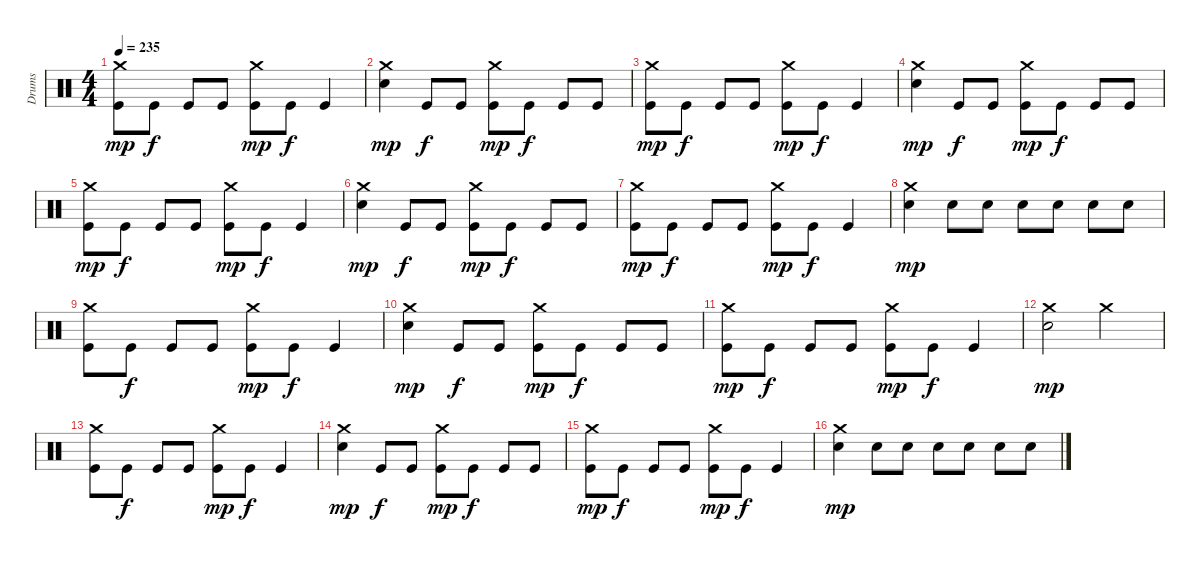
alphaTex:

\track ("Drums" "Drums") {instrument percussion}
\staff {score}
\articulation defaults
\ts (4 4)
\tempo 235
\clef neutral
\ks c
("Crash medium (hit)" "Kick (hit)").8{dy mp} "Kick (hit)".8{dy f} "Kick (hit)".8 "Kick (hit)".8 ("Crash medium (hit)" "Kick (hit)").8{dy mp} "Kick (hit)".8{dy f} "Kick (hit)".4 |
("Crash medium (hit)" "Snare (hit) 2").4{dy mp} "Kick (hit)".8{dy f} "Kick (hit)".8 ("Crash medium (hit)" "Kick (hit)").8{dy mp} "Kick (hit)".8{dy f} "Kick (hit)".8 "Kick (hit)".8 |
("Crash medium (hit)" "Kick (hit)").8{dy mp} "Kick (hit)".8{dy f} "Kick (hit)".8 "Kick (hit)".8 ("Crash medium (hit)" "Kick (hit)").8{dy mp} "Kick (hit)".8{dy f} "Kick (hit)".4 |
("Crash medium (hit)" "Snare (hit) 2").4{dy mp} "Kick (hit)".8{dy f} "Kick (hit)".8 ("Crash medium (hit)" "Kick (hit)").8{dy mp} "Kick (hit)".8{dy f} "Kick (hit)".8 "Kick (hit)".8 |
("Crash medium (hit)" "Kick (hit)").8{dy mp} "Kick (hit)".8{dy f} "Kick (hit)".8 "Kick (hit)".8 ("Crash medium (hit)" "Kick (hit)").8{dy mp} "Kick (hit)".8{dy f} "Kick (hit)".4 |
("Crash medium (hit)" "Snare (hit) 2").4{dy mp} "Kick (hit)".8{dy f} "Kick (hit)".8 ("Crash medium (hit)" "Kick (hit)").8{dy mp} "Kick (hit)".8{dy f} "Kick (hit)".8 "Kick (hit)".8 |
("Crash medium (hit)" "Kick (hit)").8{dy mp} "Kick (hit)".8{dy f} "Kick (hit)".8 "Kick (hit)".8 ("Crash medium (hit)" "Kick (hit)").8{dy mp} "Kick (hit)".8{dy f} "Kick (hit)".4 |
("Crash medium (hit)" "Snare (hit) 2").4{dy mp} "Snare (hit) 2".8 "Snare (hit) 2".8 "Snare (hit) 2".8 "Snare (hit) 2".8 "Snare (hit) 2".8 "Snare (hit) 2".8 |
("Crash medium (hit)" "Kick (hit)").8 "Kick (hit)".8{dy f} "Kick (hit)".8 "Kick (hit)".8 ("Crash medium (hit)" "Kick (hit)").8{dy mp} "Kick (hit)".8{dy f} "Kick (hit)".4 |
("Crash medium (hit)" "Snare (hit) 2").4{dy mp} "Kick (hit)".8{dy f} "Kick (hit)".8 ("Crash medium (hit)" "Kick (hit)").8{dy mp} "Kick (hit)".8{dy f} "Kick (hit)".8 "Kick (hit)".8 |
("Crash medium (hit)" "Kick (hit)").8{dy mp} "Kick (hit)".8{dy f} "Kick (hit)".8 "Kick (hit)".8 ("Crash medium (hit)" "Kick (hit)").8{dy mp} "Kick (hit)".8{dy f} "Kick (hit)".4 |
("Crash medium (hit)" "Snare (hit) 2").2{dy mp} "Crash medium (hit)".2 |
("Crash medium (hit)" "Kick (hit)").8 "Kick (hit)".8{dy f} "Kick (hit)".8 "Kick (hit)".8 ("Crash medium (hit)" "Kick (hit)").8{dy mp} "Kick (hit)".8{dy f} "Kick (hit)".4 |
("Crash medium (hit)" "Snare (hit) 2").4{dy mp} "Kick (hit)".8{dy f} "Kick (hit)".8 ("Crash medium (hit)" "Kick (hit)").8{dy mp} "Kick (hit)".8{dy f} "Kick (hit)".8 "Kick (hit)".8 |
("Crash medium (hit)" "Kick (hit)").8{dy mp} "Kick (hit)".8{dy f} "Kick (hit)".8 "Kick (hit)".8 ("Crash medium (hit)" "Kick (hit)").8{dy mp} "Kick (hit)".8{dy f} "Kick (hit)".4 |
("Crash medium (hit)" "Snare (hit) 2").4{dy mp} "Snare (hit) 2".8 "Snare (hit) 2".8 "Snare (hit) 2".8 "Snare (hit) 2".8 "Snare (hit) 2".8 "Snare (hit) 2".8
